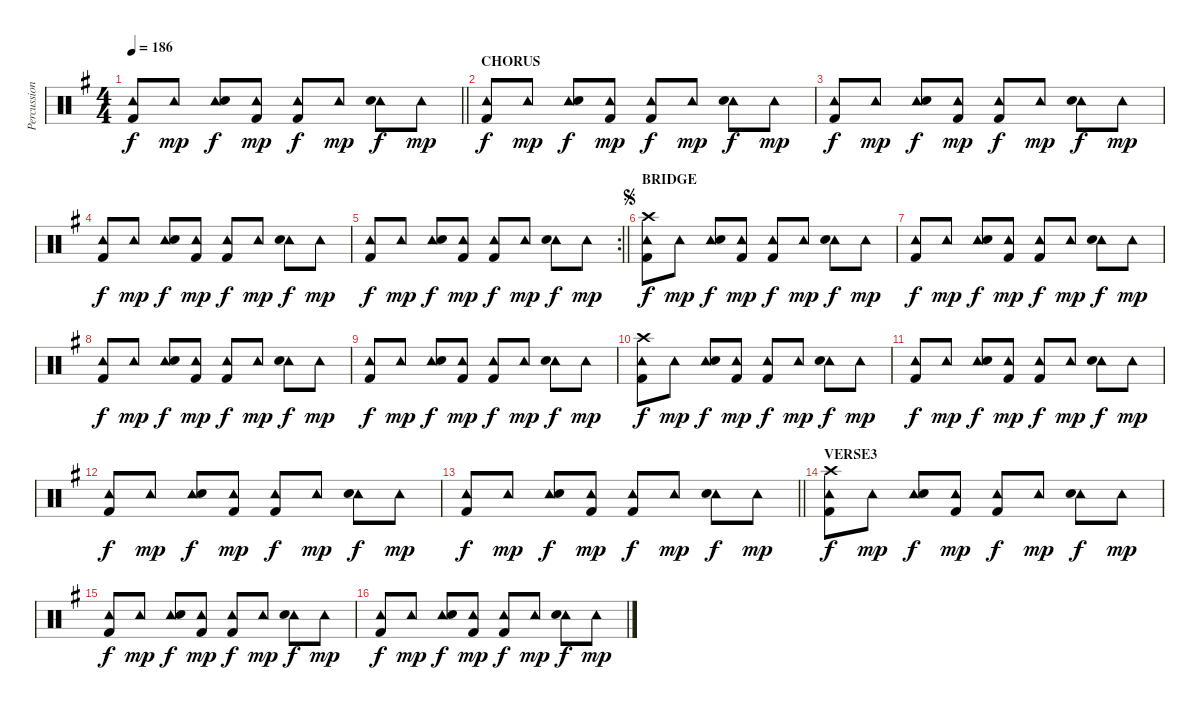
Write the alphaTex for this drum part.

\track ("Percussion" "Percussion") {instrument percussion}
\staff {score}
\articulation defaults
\ts (4 4)
\tempo 186
\clef neutral
\barLineRight lightlight
\ks g
("Tambourine (hit)" "Kick (hit) 2").8{dy f} "Tambourine (hit)".8{dy mp} ("Tambourine (hit)" "Electric Snare (hit)").8{dy f} ("Tambourine (hit)" "Kick (hit) 2").8{dy mp} ("Tambourine (hit)" "Kick (hit) 2").8{dy f} "Tambourine (hit)".8{dy mp} ("Tambourine (hit)" "Electric Snare (hit)").8{dy f} "Tambourine (hit)".8{dy mp} |
\section ("" "CHORUS")
("Tambourine (hit)" "Kick (hit) 2").8{dy f} "Tambourine (hit)".8{dy mp} ("Tambourine (hit)" "Electric Snare (hit)").8{dy f} ("Tambourine (hit)" "Kick (hit) 2").8{dy mp} ("Tambourine (hit)" "Kick (hit) 2").8{dy f} "Tambourine (hit)".8{dy mp} ("Tambourine (hit)" "Electric Snare (hit)").8{dy f} "Tambourine (hit)".8{dy mp} |
("Tambourine (hit)" "Kick (hit) 2").8{dy f} "Tambourine (hit)".8{dy mp} ("Tambourine (hit)" "Electric Snare (hit)").8{dy f} ("Tambourine (hit)" "Kick (hit) 2").8{dy mp} ("Tambourine (hit)" "Kick (hit) 2").8{dy f} "Tambourine (hit)".8{dy mp} ("Tambourine (hit)" "Electric Snare (hit)").8{dy f} "Tambourine (hit)".8{dy mp} |
("Tambourine (hit)" "Kick (hit) 2").8{dy f} "Tambourine (hit)".8{dy mp} ("Tambourine (hit)" "Electric Snare (hit)").8{dy f} ("Tambourine (hit)" "Kick (hit) 2").8{dy mp} ("Tambourine (hit)" "Kick (hit) 2").8{dy f} "Tambourine (hit)".8{dy mp} ("Tambourine (hit)" "Electric Snare (hit)").8{dy f} "Tambourine (hit)".8{dy mp} |
\rc 2
\barLineRight lightlight
("Tambourine (hit)" "Kick (hit) 2").8{dy f} "Tambourine (hit)".8{dy mp} ("Tambourine (hit)" "Electric Snare (hit)").8{dy f} ("Tambourine (hit)" "Kick (hit) 2").8{dy mp} ("Tambourine (hit)" "Kick (hit) 2").8{dy f} "Tambourine (hit)".8{dy mp} ("Tambourine (hit)" "Electric Snare (hit)").8{dy f} "Tambourine (hit)".8{dy mp} |
\section ("" "BRIDGE")
\jump segno
("Crash high (hit)" "Tambourine (hit)" "Kick (hit) 2").8{dy f} "Tambourine (hit)".8{dy mp} ("Tambourine (hit)" "Electric Snare (hit)").8{dy f} ("Tambourine (hit)" "Kick (hit) 2").8{dy mp} ("Tambourine (hit)" "Kick (hit) 2").8{dy f} "Tambourine (hit)".8{dy mp} ("Tambourine (hit)" "Electric Snare (hit)").8{dy f} "Tambourine (hit)".8{dy mp} |
("Tambourine (hit)" "Kick (hit) 2").8{dy f} "Tambourine (hit)".8{dy mp} ("Tambourine (hit)" "Electric Snare (hit)").8{dy f} ("Tambourine (hit)" "Kick (hit) 2").8{dy mp} ("Tambourine (hit)" "Kick (hit) 2").8{dy f} "Tambourine (hit)".8{dy mp} ("Tambourine (hit)" "Electric Snare (hit)").8{dy f} "Tambourine (hit)".8{dy mp} |
("Tambourine (hit)" "Kick (hit) 2").8{dy f} "Tambourine (hit)".8{dy mp} ("Tambourine (hit)" "Electric Snare (hit)").8{dy f} ("Tambourine (hit)" "Kick (hit) 2").8{dy mp} ("Tambourine (hit)" "Kick (hit) 2").8{dy f} "Tambourine (hit)".8{dy mp} ("Tambourine (hit)" "Electric Snare (hit)").8{dy f} "Tambourine (hit)".8{dy mp} |
("Tambourine (hit)" "Kick (hit) 2").8{dy f} "Tambourine (hit)".8{dy mp} ("Tambourine (hit)" "Electric Snare (hit)").8{dy f} ("Tambourine (hit)" "Kick (hit) 2").8{dy mp} ("Tambourine (hit)" "Kick (hit) 2").8{dy f} "Tambourine (hit)".8{dy mp} ("Tambourine (hit)" "Electric Snare (hit)").8{dy f} "Tambourine (hit)".8{dy mp} |
("Crash high (hit)" "Tambourine (hit)" "Kick (hit) 2").8{dy f} "Tambourine (hit)".8{dy mp} ("Tambourine (hit)" "Electric Snare (hit)").8{dy f} ("Tambourine (hit)" "Kick (hit) 2").8{dy mp} ("Tambourine (hit)" "Kick (hit) 2").8{dy f} "Tambourine (hit)".8{dy mp} ("Tambourine (hit)" "Electric Snare (hit)").8{dy f} "Tambourine (hit)".8{dy mp} |
("Tambourine (hit)" "Kick (hit) 2").8{dy f} "Tambourine (hit)".8{dy mp} ("Tambourine (hit)" "Electric Snare (hit)").8{dy f} ("Tambourine (hit)" "Kick (hit) 2").8{dy mp} ("Tambourine (hit)" "Kick (hit) 2").8{dy f} "Tambourine (hit)".8{dy mp} ("Tambourine (hit)" "Electric Snare (hit)").8{dy f} "Tambourine (hit)".8{dy mp} |
("Tambourine (hit)" "Kick (hit) 2").8{dy f} "Tambourine (hit)".8{dy mp} ("Tambourine (hit)" "Electric Snare (hit)").8{dy f} ("Tambourine (hit)" "Kick (hit) 2").8{dy mp} ("Tambourine (hit)" "Kick (hit) 2").8{dy f} "Tambourine (hit)".8{dy mp} ("Tambourine (hit)" "Electric Snare (hit)").8{dy f} "Tambourine (hit)".8{dy mp} |
\barLineRight lightlight
("Tambourine (hit)" "Kick (hit) 2").8{dy f} "Tambourine (hit)".8{dy mp} ("Tambourine (hit)" "Electric Snare (hit)").8{dy f} ("Tambourine (hit)" "Kick (hit) 2").8{dy mp} ("Tambourine (hit)" "Kick (hit) 2").8{dy f} "Tambourine (hit)".8{dy mp} ("Tambourine (hit)" "Electric Snare (hit)").8{dy f} "Tambourine (hit)".8{dy mp} |
\section ("" "VERSE3")
("Crash high (hit)" "Tambourine (hit)" "Kick (hit) 2").8{dy f} "Tambourine (hit)".8{dy mp} ("Tambourine (hit)" "Electric Snare (hit)").8{dy f} ("Tambourine (hit)" "Kick (hit) 2").8{dy mp} ("Tambourine (hit)" "Kick (hit) 2").8{dy f} "Tambourine (hit)".8{dy mp} ("Tambourine (hit)" "Electric Snare (hit)").8{dy f} "Tambourine (hit)".8{dy mp} |
("Tambourine (hit)" "Kick (hit) 2").8{dy f} "Tambourine (hit)".8{dy mp} ("Tambourine (hit)" "Electric Snare (hit)").8{dy f} ("Tambourine (hit)" "Kick (hit) 2").8{dy mp} ("Tambourine (hit)" "Kick (hit) 2").8{dy f} "Tambourine (hit)".8{dy mp} ("Tambourine (hit)" "Electric Snare (hit)").8{dy f} "Tambourine (hit)".8{dy mp} |
("Tambourine (hit)" "Kick (hit) 2").8{dy f} "Tambourine (hit)".8{dy mp} ("Tambourine (hit)" "Electric Snare (hit)").8{dy f} ("Tambourine (hit)" "Kick (hit) 2").8{dy mp} ("Tambourine (hit)" "Kick (hit) 2").8{dy f} "Tambourine (hit)".8{dy mp} ("Tambourine (hit)" "Electric Snare (hit)").8{dy f} "Tambourine (hit)".8{dy mp}
